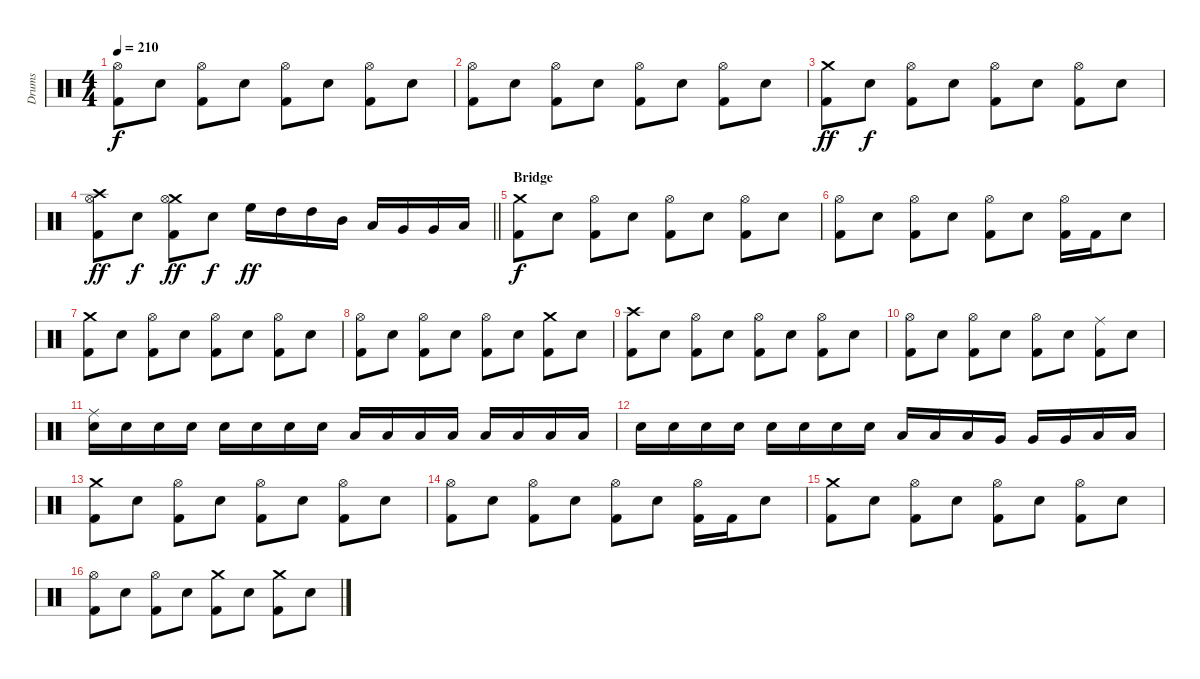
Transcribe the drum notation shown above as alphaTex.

\track ("Drums" "Drums") {instrument percussion}
\staff {score}
\articulation defaults
\ts (4 4)
\tempo 210
\clef neutral
\ks c
("Hi-Hat (open)" "Kick (hit) 2").8{dy f} "Snare (hit) 2".8 ("Hi-Hat (open)" "Kick (hit) 2").8 "Snare (hit) 2".8 ("Hi-Hat (open)" "Kick (hit) 2").8 "Snare (hit) 2".8 ("Hi-Hat (open)" "Kick (hit) 2").8 "Snare (hit) 2".8 |
("Hi-Hat (open)" "Kick (hit) 2").8 "Snare (hit) 2".8 ("Hi-Hat (open)" "Kick (hit) 2").8 "Snare (hit) 2".8 ("Hi-Hat (open)" "Kick (hit) 2").8 "Snare (hit) 2".8 ("Hi-Hat (open)" "Kick (hit) 2").8 "Snare (hit) 2".8 |
("Crash medium (hit)" "Kick (hit) 2").8{dy ff} "Snare (hit) 2".8{dy f} ("Hi-Hat (open)" "Kick (hit) 2").8 "Snare (hit) 2".8 ("Hi-Hat (open)" "Kick (hit) 2").8 "Snare (hit) 2".8 ("Hi-Hat (open)" "Kick (hit) 2").8 "Snare (hit) 2".8 |
\barLineRight lightlight
("Crash high (hit)" "Hi-Hat (open)" "Kick (hit) 2").8{dy ff} "Snare (hit) 2".8{dy f} ("Crash medium (hit)" "Hi-Hat (open)" "Kick (hit) 2").8{dy ff} "Snare (hit) 2".8{dy f} "High Floor Tom (hit)".16{dy ff} "High Tom (hit)".16 "High Tom (hit)".16 "Mid Tom (hit)".16 "Low Tom (hit)".16 "Very Low Tom (hit)".16 "Very Low Tom (hit)".16 "Low Floor Tom (hit)".16 |
\section ("" "Bridge")
("Crash medium (hit)" "Kick (hit) 2").8{dy f} "Snare (hit) 2".8 ("Hi-Hat (open)" "Kick (hit) 2").8 "Snare (hit) 2".8 ("Hi-Hat (open)" "Kick (hit) 2").8 "Snare (hit) 2".8 ("Hi-Hat (open)" "Kick (hit) 2").8 "Snare (hit) 2".8 |
("Hi-Hat (open)" "Kick (hit) 2").8 "Snare (hit) 2".8 ("Hi-Hat (open)" "Kick (hit) 2").8 "Snare (hit) 2".8 ("Hi-Hat (open)" "Kick (hit) 2").8 "Snare (hit) 2".8 ("Hi-Hat (open)" "Kick (hit) 2").16 "Kick (hit) 2".16 "Snare (hit) 2".8 |
("Crash medium (hit)" "Kick (hit) 2").8 "Snare (hit) 2".8 ("Hi-Hat (open)" "Kick (hit) 2").8 "Snare (hit) 2".8 ("Hi-Hat (open)" "Kick (hit) 2").8 "Snare (hit) 2".8 ("Hi-Hat (open)" "Kick (hit) 2").8 "Snare (hit) 2".8 |
("Hi-Hat (open)" "Kick (hit) 2").8 "Snare (hit) 2".8 ("Hi-Hat (open)" "Kick (hit) 2").8 "Snare (hit) 2".8 ("Hi-Hat (open)" "Kick (hit) 2").8 "Snare (hit) 2".8 ("Crash medium (hit)" "Kick (hit) 2").8 "Snare (hit) 2".8 |
("Crash high (hit)" "Kick (hit) 2").8 "Snare (hit) 2".8 ("Hi-Hat (open)" "Kick (hit) 2").8 "Snare (hit) 2".8 ("Hi-Hat (open)" "Kick (hit) 2").8 "Snare (hit) 2".8 ("Hi-Hat (open)" "Kick (hit) 2").8 "Snare (hit) 2".8 |
("Hi-Hat (open)" "Kick (hit) 2").8 "Snare (hit) 2".8 ("Hi-Hat (open)" "Kick (hit) 2").8 "Snare (hit) 2".8 ("Hi-Hat (open)" "Kick (hit) 2").8 "Snare (hit) 2".8 ("Ride (middle)" "Kick (hit) 2").8 "Snare (hit) 2".8 |
("Ride (middle)" "Snare (hit) 2").16 "Snare (hit) 2".16 "Snare (hit) 2".16 "Snare (hit) 2".16 "Snare (hit) 2".16 "Snare (hit) 2".16 "Snare (hit) 2".16 "Snare (hit) 2".16 "Low Tom (hit)".16 "Low Tom (hit)".16 "Low Tom (hit)".16 "Low Tom (hit)".16 "Low Tom (hit)".16 "Low Tom (hit)".16 "Low Tom (hit)".16 "Low Tom (hit)".16 |
"Snare (hit) 2".16 "Snare (hit) 2".16 "Snare (hit) 2".16 "Snare (hit) 2".16 "Snare (hit) 2".16 "Snare (hit) 2".16 "Snare (hit) 2".16 "Snare (hit) 2".16 "Low Tom (hit)".16 "Low Tom (hit)".16 "Low Tom (hit)".16 "Very Low Tom (hit)".16 "Very Low Tom (hit)".16 "Very Low Tom (hit)".16 "Low Floor Tom (hit)".16 "Low Floor Tom (hit)".16 |
("Crash medium (hit)" "Kick (hit) 2").8 "Snare (hit) 2".8 ("Hi-Hat (open)" "Kick (hit) 2").8 "Snare (hit) 2".8 ("Hi-Hat (open)" "Kick (hit) 2").8 "Snare (hit) 2".8 ("Hi-Hat (open)" "Kick (hit) 2").8 "Snare (hit) 2".8 |
("Hi-Hat (open)" "Kick (hit) 2").8 "Snare (hit) 2".8 ("Hi-Hat (open)" "Kick (hit) 2").8 "Snare (hit) 2".8 ("Hi-Hat (open)" "Kick (hit) 2").8 "Snare (hit) 2".8 ("Hi-Hat (open)" "Kick (hit) 2").16 "Kick (hit) 2".16 "Snare (hit) 2".8 |
("Crash medium (hit)" "Kick (hit) 2").8 "Snare (hit) 2".8 ("Hi-Hat (open)" "Kick (hit) 2").8 "Snare (hit) 2".8 ("Hi-Hat (open)" "Kick (hit) 2").8 "Snare (hit) 2".8 ("Hi-Hat (open)" "Kick (hit) 2").8 "Snare (hit) 2".8 |
("Hi-Hat (open)" "Kick (hit) 2").8 "Snare (hit) 2".8 ("Hi-Hat (open)" "Kick (hit) 2").8 "Snare (hit) 2".8 ("Crash medium (hit)" "Kick (hit) 2").8 "Snare (hit) 2".8 ("Crash medium (hit)" "Kick (hit) 2").8 "Snare (hit) 2".8
